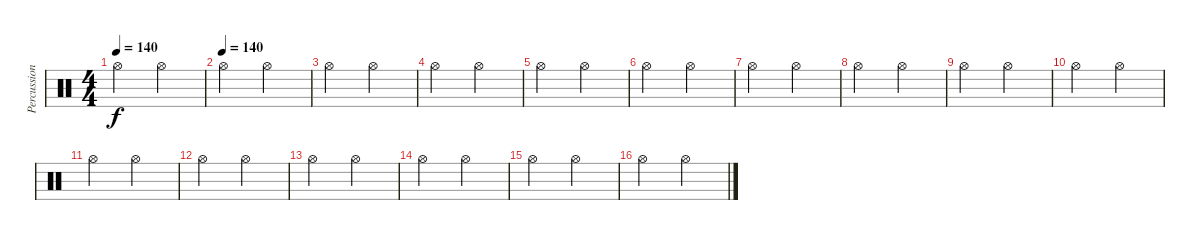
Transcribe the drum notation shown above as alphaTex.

\track ("Percussions" "Percussion") {instrument percussion}
\staff {score}
\articulation defaults
\ts (4 4)
\tempo 140
\clef neutral
\ks c "Hi-Hat (open)".2{dy f} "Hi-Hat (open)".2
|
\tempo (140)
"Hi-Hat (open)".2 "Hi-Hat (open)".2 |
"Hi-Hat (open)".2 "Hi-Hat (open)".2 |
"Hi-Hat (open)".2 "Hi-Hat (open)".2 |
"Hi-Hat (open)".2 "Hi-Hat (open)".2 |
"Hi-Hat (open)".2 "Hi-Hat (open)".2 |
"Hi-Hat (open)".2 "Hi-Hat (open)".2 |
"Hi-Hat (open)".2 "Hi-Hat (open)".2 |
"Hi-Hat (open)".2 "Hi-Hat (open)".2 |
"Hi-Hat (open)".2 "Hi-Hat (open)".2 |
"Hi-Hat (open)".2 "Hi-Hat (open)".2 |
"Hi-Hat (open)".2 "Hi-Hat (open)".2 |
"Hi-Hat (open)".2 "Hi-Hat (open)".2 |
"Hi-Hat (open)".2 "Hi-Hat (open)".2 |
"Hi-Hat (open)".2 "Hi-Hat (open)".2 |
"Hi-Hat (open)".2 "Hi-Hat (open)".2
